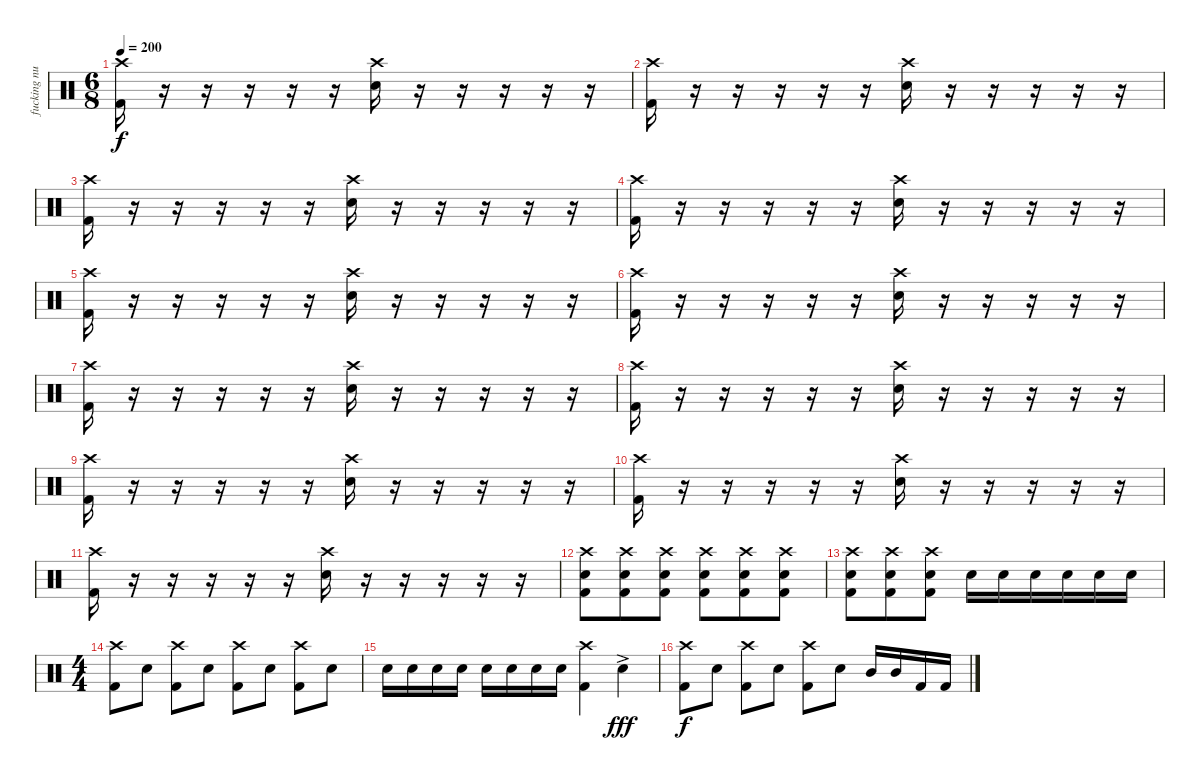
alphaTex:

\track ("fucking nuts." "fucking nu") {instrument percussion}
\staff {score}
\articulation defaults
\ts (6 8)
\tempo 200
\clef neutral
\ks c
("Crash high (hit)" "Kick (hit) 2").16{dy f} r.16 r.16 r.16 r.16 r.16 ("Crash high (hit)" "Electric Snare (hit)").16 r.16 r.16 r.16 r.16 r.16 |
("Crash high (hit)" "Kick (hit) 2").16 r.16 r.16 r.16 r.16 r.16 ("Crash high (hit)" "Electric Snare (hit)").16 r.16 r.16 r.16 r.16 r.16 |
("Crash high (hit)" "Kick (hit) 2").16 r.16 r.16 r.16 r.16 r.16 ("Crash high (hit)" "Electric Snare (hit)").16 r.16 r.16 r.16 r.16 r.16 |
("Crash high (hit)" "Kick (hit) 2").16 r.16 r.16 r.16 r.16 r.16 ("Crash high (hit)" "Electric Snare (hit)").16 r.16 r.16 r.16 r.16 r.16 |
("Crash high (hit)" "Kick (hit) 2").16 r.16 r.16 r.16 r.16 r.16 ("Crash high (hit)" "Electric Snare (hit)").16 r.16 r.16 r.16 r.16 r.16 |
("Crash high (hit)" "Kick (hit) 2").16 r.16 r.16 r.16 r.16 r.16 ("Crash high (hit)" "Electric Snare (hit)").16 r.16 r.16 r.16 r.16 r.16 |
("Crash high (hit)" "Kick (hit) 2").16 r.16 r.16 r.16 r.16 r.16 ("Crash high (hit)" "Electric Snare (hit)").16 r.16 r.16 r.16 r.16 r.16 |
("Crash high (hit)" "Kick (hit) 2").16 r.16 r.16 r.16 r.16 r.16 ("Crash high (hit)" "Electric Snare (hit)").16 r.16 r.16 r.16 r.16 r.16 |
("Crash high (hit)" "Kick (hit) 2").16 r.16 r.16 r.16 r.16 r.16 ("Crash high (hit)" "Electric Snare (hit)").16 r.16 r.16 r.16 r.16 r.16 |
("Crash high (hit)" "Kick (hit) 2").16 r.16 r.16 r.16 r.16 r.16 ("Crash high (hit)" "Electric Snare (hit)").16 r.16 r.16 r.16 r.16 r.16 |
("Crash high (hit)" "Kick (hit) 2").16 r.16 r.16 r.16 r.16 r.16 ("Crash high (hit)" "Electric Snare (hit)").16 r.16 r.16 r.16 r.16 r.16 |
("Crash high (hit)" "Electric Snare (hit)" "Kick (hit) 2").8 ("Crash high (hit)" "Electric Snare (hit)" "Kick (hit) 2").8 ("Crash high (hit)" "Electric Snare (hit)" "Kick (hit) 2").8 ("Crash high (hit)" "Electric Snare (hit)" "Kick (hit) 2").8 ("Crash high (hit)" "Electric Snare (hit)" "Kick (hit) 2").8 ("Crash high (hit)" "Electric Snare (hit)" "Kick (hit) 2").8 |
("Crash high (hit)" "Electric Snare (hit)" "Kick (hit) 2").8 ("Crash high (hit)" "Electric Snare (hit)" "Kick (hit) 2").8 ("Crash high (hit)" "Electric Snare (hit)" "Kick (hit) 2").8 "Electric Snare (hit)".16 "Electric Snare (hit)".16 "Electric Snare (hit)".16 "Electric Snare (hit)".16 "Electric Snare (hit)".16 "Electric Snare (hit)".16 |
\ts (4 4)
("Crash high (hit)" "Kick (hit) 2").8 "Electric Snare (hit)".8 ("Crash high (hit)" "Kick (hit) 2").8 "Electric Snare (hit)".8 ("Crash high (hit)" "Kick (hit) 2").8 "Electric Snare (hit)".8 ("Crash high (hit)" "Kick (hit) 2").8 "Electric Snare (hit)".8 |
"Electric Snare (hit)".16 "Electric Snare (hit)".16 "Electric Snare (hit)".16 "Electric Snare (hit)".16 "Electric Snare (hit)".16 "Electric Snare (hit)".16 "Electric Snare (hit)".16 "Electric Snare (hit)".16 ("Crash high (hit)" "Kick (hit) 2").4 "Electric Snare (hit)"{ac}.4{dy fff} |
("Crash high (hit)" "Kick (hit) 2").8{dy f} "Electric Snare (hit)".8 ("Crash high (hit)" "Kick (hit) 2").8 "Electric Snare (hit)".8 ("Crash high (hit)" "Kick (hit) 2").8 "Electric Snare (hit)".8 "Mid Tom (hit)".16 "Mid Tom (hit)".16 "Kick (hit) 2".16 "Kick (hit) 2".16
